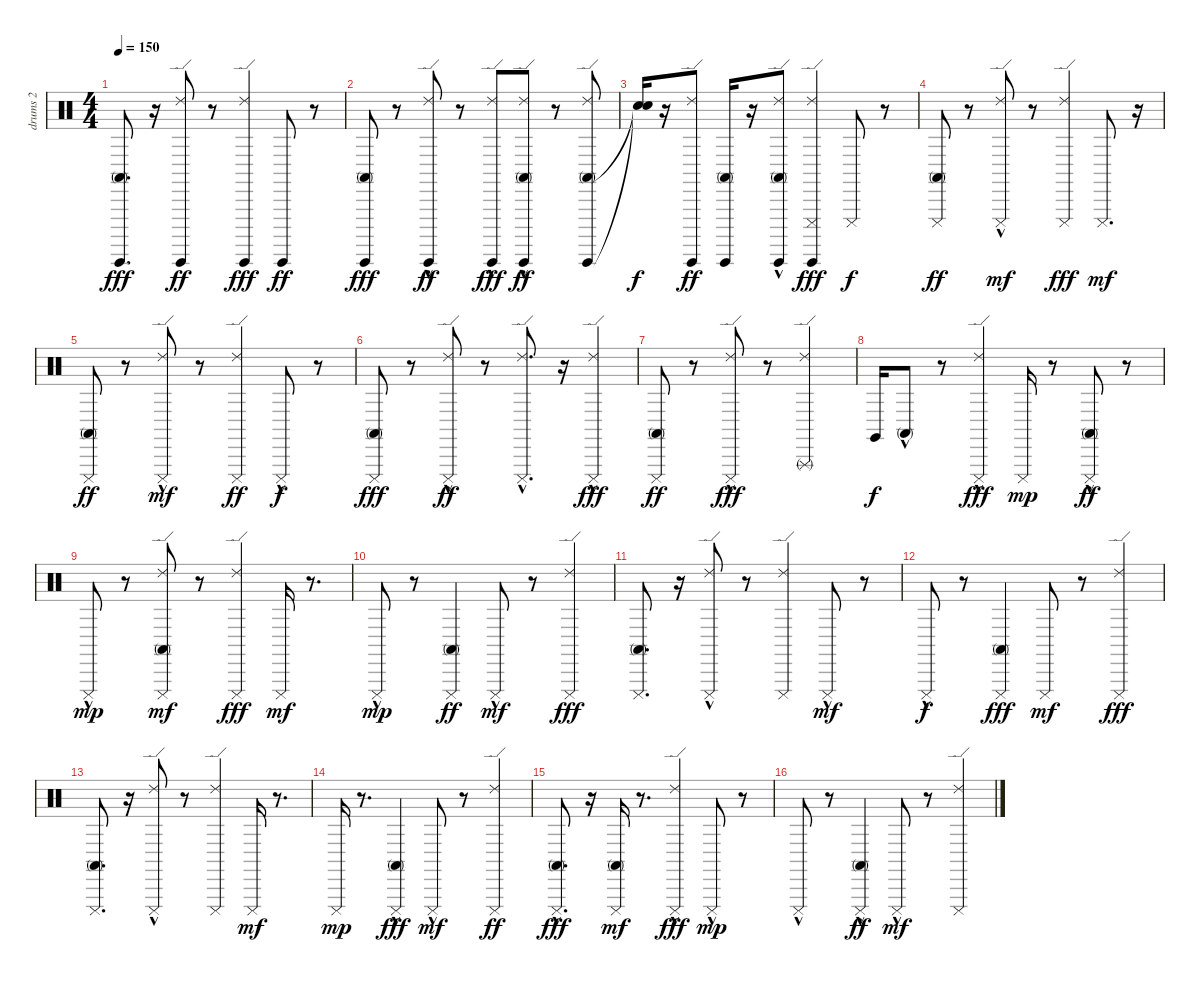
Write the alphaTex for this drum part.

\track ("drums 2" "drums 2") {instrument percussion}
\staff {score}
\articulation defaults
\ts (4 4)
\tempo 150
\clef neutral
\ks c
("Guiro (hit)" "Conga high (mute)").8{d dy fff} r.16 ("Guiro (hit)" "Ride (edge) 2").8{dy ff} r.8 ("Ride (edge) 2" "Guiro (hit)").4{dy fff} "Guiro (hit)".8{dy ff} r.8 |
("Conga high (mute)" "Guiro (hit)").8{dy fff} r.8 ("Guiro (hit)"{hac} "Ride (edge) 2").8{dy ff} r.8 ("Ride (edge) 2"{hac} "Guiro (hit)").8{dy fff} ("Conga high (mute)" "Ride (edge) 2"{hac} "Guiro (hit)").8{dy ff} r.8 ("Conga high (mute)" "Guiro (hit)" "Ride (edge) 2").8 |
("Snare (hit)"{t} "Snare (hit)"{t}).16{dy f} r.16 ("Ride (edge) 2" "Guiro (hit)").8{dy ff} ("Conga high (mute)" "Guiro (hit)").16 r.16 ("Ride (edge) 2" "Conga high (mute)" "Guiro (hit)"{hac}).8 ("Cuica (mute)" "Guiro (hit)" "Ride (edge) 2").4{dy fff} "Cuica (mute)".8{dy f} r.8 |
("Conga high (mute)" "Cuica (mute)").8{dy ff} r.8 ("Ride (edge) 2"{hac} "Cuica (mute)"{hac}).8{dy mf} r.8 ("Cuica (mute)" "Ride (edge) 2").4{dy fff} "Cuica (mute)".8{d dy mf} r.16 |
("Conga high (mute)" "Cuica (mute)").8{dy ff} r.8 ("Ride (edge) 2"{hac} "Cuica (mute)"{hac}).8{dy mf} r.8 ("Ride (edge) 2" "Cuica (mute)").4{dy ff} "Cuica (mute)"{hac}.8{dy f} r.8 |
("Conga high (mute)" "Cuica (mute)").8{dy fff} r.8 ("Ride (edge) 2"{hac} "Cuica (mute)"{hac}).8{dy ff} r.8 ("Ride (edge) 2" "Cuica (mute)"{hac}).8{d} r.16 ("Ride (edge) 2" "Cuica (mute)"{hac}).4{dy fff} |
("Conga high (mute)" "Cuica (mute)").8{dy ff} r.8 ("Cuica (mute)"{hac} "Ride (edge) 2"{hac}).8{dy fff} r.8 ("Ride (edge) 2" "Triangle (rnute)").2 |
"Claves (hit)".16{dy f} "Conga high (mute)"{hac}.8 r.8 ("Cuica (mute)"{hac} "Ride (edge) 2").4{dy fff} "Cuica (mute)".16{dy mp} r.8 ("Conga high (mute)" "Cuica (mute)"{hac}).8{dy ff} r.8 |
"Cuica (mute)"{hac}.8{dy mp} r.8 ("Ride (edge) 2" "Conga high (mute)" "Cuica (mute)").8{dy mf} r.8 ("Cuica (mute)" "Ride (edge) 2").4{dy fff} "Cuica (mute)".16{dy mf} r.8{d} |
"Cuica (mute)"{hac}.8{dy mp} r.8 ("Conga high (mute)" "Cuica (mute)").4{dy ff} "Cuica (mute)"{hac}.8{dy mf} r.8 ("Ride (edge) 2" "Cuica (mute)").4{dy fff} |
("Cuica (mute)" "Conga high (mute)").8{d} r.16 ("Ride (edge) 2"{hac} "Cuica (mute)"{hac}).8 r.8 ("Cuica (mute)" "Ride (edge) 2").4 "Cuica (mute)"{hac}.8{dy mf} r.8 |
"Cuica (mute)"{hac}.8{dy f} r.8 ("Cuica (mute)" "Conga high (mute)").4{dy fff} "Cuica (mute)".8{dy mf} r.8 ("Ride (edge) 2" "Cuica (mute)").4{dy fff} |
("Cuica (mute)" "Conga high (mute)").8{d} r.16 ("Ride (edge) 2"{hac} "Cuica (mute)"{hac}).8 r.8 ("Ride (edge) 2" "Cuica (mute)").4 "Cuica (mute)".16{dy mf} r.8{d} |
"Cuica (mute)".16{dy mp} r.8{d} ("Cuica (mute)"{hac} "Conga high (mute)").4{dy fff} "Cuica (mute)"{hac}.8{dy mf} r.8 ("Ride (edge) 2" "Cuica (mute)").4{dy ff} |
("Cuica (mute)"{hac} "Conga high (mute)").8{d dy fff} r.16 ("Cuica (mute)" "Conga high (mute)").16{dy mf} r.8{d} ("Cuica (mute)"{hac} "Ride (edge) 2").4{dy fff} "Cuica (mute)"{hac}.8{dy mp} r.8 |
"Cuica (mute)"{hac}.8 r.8 ("Cuica (mute)"{hac} "Conga high (mute)").4{dy ff} "Cuica (mute)"{hac}.8{dy mf} r.8 ("Ride (edge) 2" "Cuica (mute)").4
